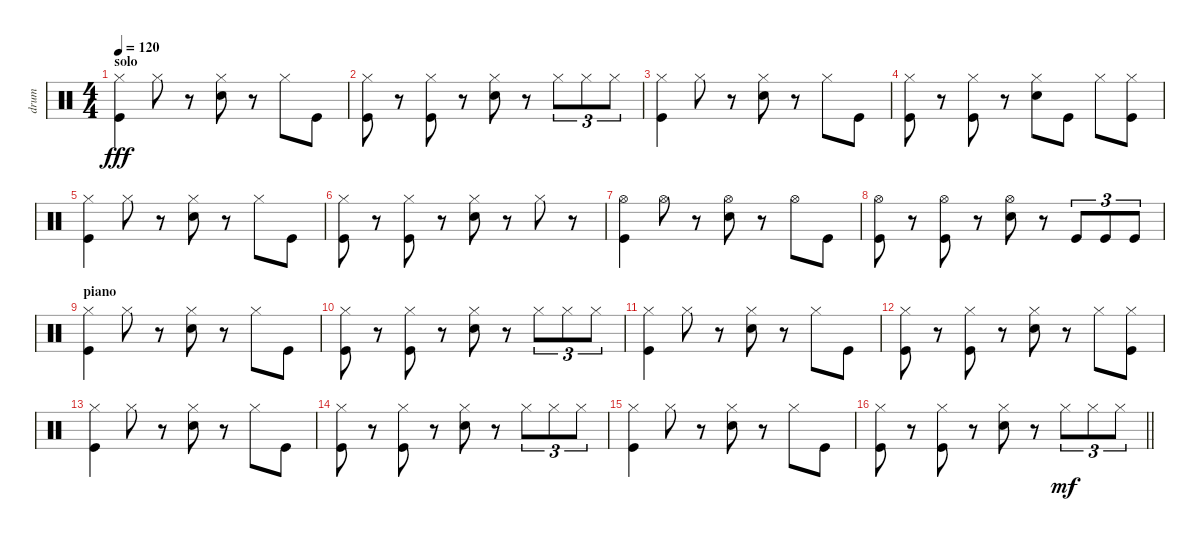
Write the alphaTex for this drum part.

\track ("drum" "drum") {instrument percussion}
\staff {score}
\articulation defaults
\ts (4 4)
\section ("" "solo")
\tempo 120
\clef neutral
\ks c
("Hi-Hat (closed)" "Kick (hit)").4{dy fff} "Hi-Hat (closed)".8 r.8 ("Hi-Hat (closed)" "Hand Clap (hit)").8 r.8 "Hi-Hat (closed)".8 "Kick (hit)".8 |
("Hi-Hat (closed)" "Kick (hit)").8 r.8 ("Hi-Hat (closed)" "Kick (hit)").8 r.8 ("Hi-Hat (closed)" "Hand Clap (hit)").8 r.8 "Hi-Hat (closed)".8{tu (3 2)} "Hi-Hat (closed)".8{tu (3 2)} "Hi-Hat (closed)".8{tu (3 2)} |
("Hi-Hat (closed)" "Kick (hit)").4 "Hi-Hat (closed)".8 r.8 ("Hi-Hat (closed)" "Hand Clap (hit)").8 r.8 "Hi-Hat (closed)".8 "Kick (hit)".8 |
("Hi-Hat (closed)" "Kick (hit)").8 r.8 ("Hi-Hat (closed)" "Kick (hit)").8 r.8 ("Hi-Hat (closed)" "Hand Clap (hit)").8 "Kick (hit)".8 "Hi-Hat (closed)".8 ("Hi-Hat (closed)" "Kick (hit)").8 |
("Hi-Hat (closed)" "Kick (hit)").4 "Hi-Hat (closed)".8 r.8 ("Hi-Hat (closed)" "Hand Clap (hit)").8 r.8 "Hi-Hat (closed)".8 "Kick (hit)".8 |
("Hi-Hat (closed)" "Kick (hit)").8 r.8 ("Hi-Hat (closed)" "Kick (hit)").8 r.8 ("Hi-Hat (closed)" "Hand Clap (hit)").8 r.8 "Hi-Hat (closed)".8 r.8 |
("Hi-Hat (open)" "Kick (hit)").4 "Hi-Hat (open)".8 r.8 ("Hi-Hat (open)" "Hand Clap (hit)").8 r.8 "Hi-Hat (open)".8 "Kick (hit)".8 |
("Hi-Hat (open)" "Kick (hit)").8 r.8 ("Hi-Hat (open)" "Kick (hit)").8 r.8 ("Hi-Hat (open)" "Hand Clap (hit)").8 r.8 "Kick (hit)".8{tu (3 2)} "Kick (hit)".8{tu (3 2)} "Kick (hit)".8{tu (3 2)} |
\section ("" "piano")
("Hi-Hat (closed)" "Kick (hit)").4 "Hi-Hat (closed)".8 r.8 ("Hi-Hat (closed)" "Hand Clap (hit)").8 r.8 "Hi-Hat (closed)".8 "Kick (hit)".8 |
("Hi-Hat (closed)" "Kick (hit)").8 r.8 ("Hi-Hat (closed)" "Kick (hit)").8 r.8 ("Hi-Hat (closed)" "Hand Clap (hit)").8 r.8 "Hi-Hat (closed)".8{tu (3 2)} "Hi-Hat (closed)".8{tu (3 2)} "Hi-Hat (closed)".8{tu (3 2)} |
("Hi-Hat (closed)" "Kick (hit)").4 "Hi-Hat (closed)".8 r.8 ("Hi-Hat (closed)" "Hand Clap (hit)").8 r.8 "Hi-Hat (closed)".8 "Kick (hit)".8 |
("Hi-Hat (closed)" "Kick (hit)").8 r.8 ("Hi-Hat (closed)" "Kick (hit)").8 r.8 ("Hi-Hat (closed)" "Hand Clap (hit)").8 r.8 "Hi-Hat (closed)".8 ("Hi-Hat (closed)" "Kick (hit)").8 |
("Hi-Hat (closed)" "Kick (hit)").4 "Hi-Hat (closed)".8 r.8 ("Hi-Hat (closed)" "Hand Clap (hit)").8 r.8 "Hi-Hat (closed)".8 "Kick (hit)".8 |
("Hi-Hat (closed)" "Kick (hit)").8 r.8 ("Hi-Hat (closed)" "Kick (hit)").8 r.8 ("Hi-Hat (closed)" "Hand Clap (hit)").8 r.8 "Hi-Hat (closed)".8{tu (3 2)} "Hi-Hat (closed)".8{tu (3 2)} "Hi-Hat (closed)".8{tu (3 2)} |
("Hi-Hat (closed)" "Kick (hit)").4 "Hi-Hat (closed)".8 r.8 ("Hi-Hat (closed)" "Hand Clap (hit)").8 r.8 "Hi-Hat (closed)".8 "Kick (hit)".8 |
\barLineRight lightlight
("Hi-Hat (closed)" "Kick (hit)").8 r.8 ("Hi-Hat (closed)" "Kick (hit)").8 r.8 ("Hi-Hat (closed)" "Hand Clap (hit)").8 r.8 "Hi-Hat (closed)".8{tu (3 2) dy mf} "Hi-Hat (closed)".8{tu (3 2)} "Hi-Hat (closed)".8{tu (3 2)}
